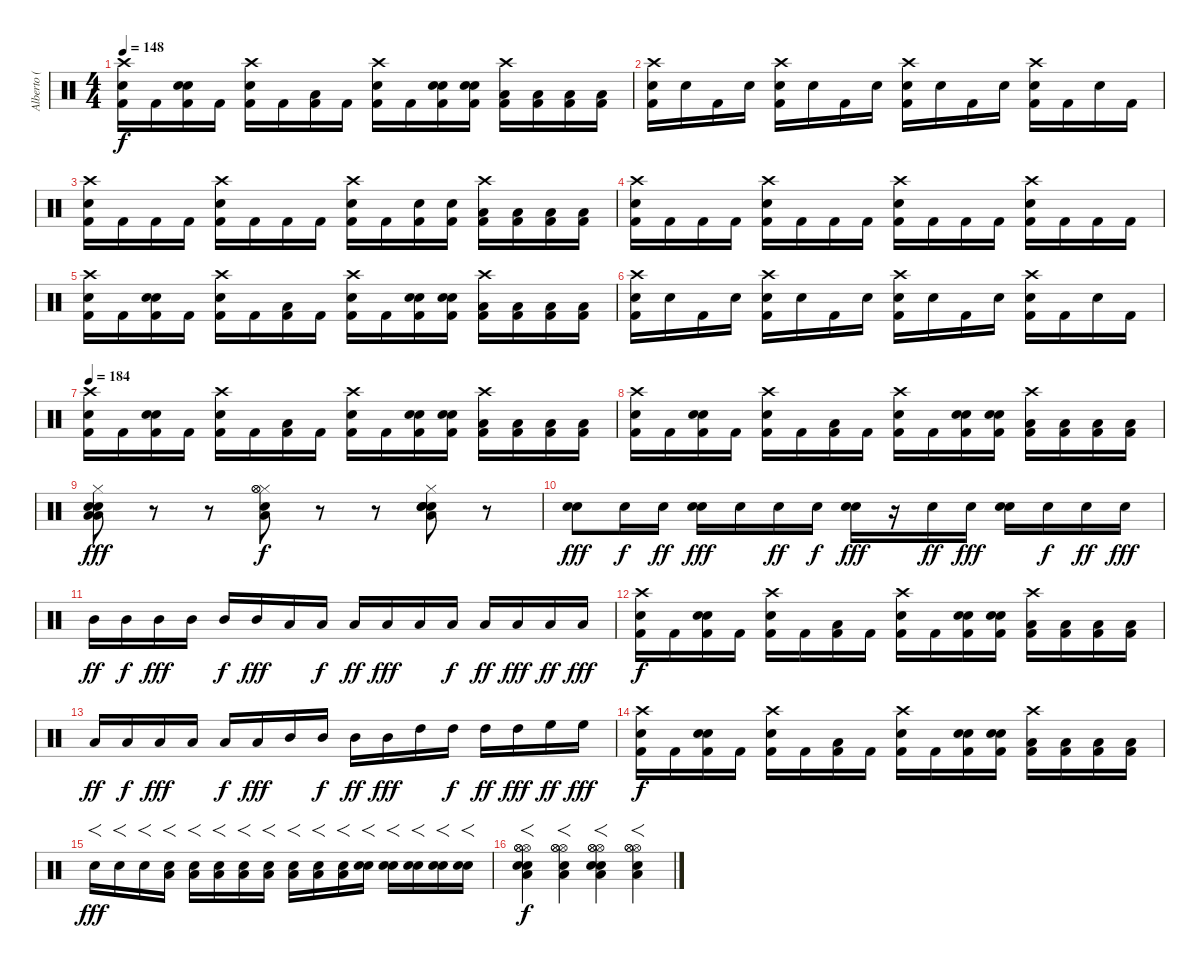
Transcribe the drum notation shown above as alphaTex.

\track ("Alberto ( Tohi )" "Alberto ( ") {instrument percussion}
\staff {score}
\articulation defaults
\ts (4 4)
\tempo 148
\clef neutral
\ks c
("Crash high (hit)" "Electric Snare (hit)" "Kick (hit) 2").16{dy f} "Kick (hit) 2".16 ("Electric Snare (hit)" "Electric Snare (hit)" "Kick (hit) 2").16 "Kick (hit) 2".16 ("Crash high (hit)" "Electric Snare (hit)" "Kick (hit) 2").16 "Kick (hit) 2".16 ("Low Tom (hit)" "Kick (hit) 2").16 "Kick (hit) 2".16 ("Crash high (hit)" "Electric Snare (hit)" "Kick (hit) 2").16 "Kick (hit) 2".16 ("Electric Snare (hit)" "Electric Snare (hit)" "Kick (hit) 2").16 ("Electric Snare (hit)" "Electric Snare (hit)" "Kick (hit) 2").16 ("Crash high (hit)" "Low Tom (hit)" "Kick (hit) 2").16 ("Low Tom (hit)" "Kick (hit) 2").16 ("Low Floor Tom (hit)" "Kick (hit) 2").16 ("Low Floor Tom (hit)" "Kick (hit) 2").16 |
("Crash high (hit)" "Electric Snare (hit)" "Kick (hit) 2").16 "Snare (hit) 2".16 "Kick (hit) 2".16 "Snare (hit) 2".16 ("Crash high (hit)" "Electric Snare (hit)" "Kick (hit) 2").16 "Snare (hit) 2".16 "Kick (hit) 2".16 "Snare (hit) 2".16 ("Crash high (hit)" "Electric Snare (hit)" "Kick (hit) 2").16 "Snare (hit) 2".16 "Kick (hit) 2".16 "Snare (hit) 2".16 ("Crash high (hit)" "Electric Snare (hit)" "Kick (hit) 2").16 "Kick (hit) 2".16 "Snare (hit) 2".16 "Kick (hit) 2".16 |
("Crash high (hit)" "Electric Snare (hit)" "Kick (hit) 2").16 "Kick (hit) 2".16 "Kick (hit) 2".16 "Kick (hit) 2".16 ("Crash high (hit)" "Electric Snare (hit)" "Kick (hit) 2").16 "Kick (hit) 2".16 "Kick (hit) 2".16 "Kick (hit) 2".16 ("Crash high (hit)" "Electric Snare (hit)" "Kick (hit) 2").16 "Kick (hit) 2".16 ("Electric Snare (hit)" "Kick (hit) 2").16 ("Electric Snare (hit)" "Kick (hit) 2").16 ("Crash high (hit)" "Low Tom (hit)" "Kick (hit) 2").16 ("Low Tom (hit)" "Kick (hit) 2").16 ("Low Floor Tom (hit)" "Kick (hit) 2").16 ("Low Floor Tom (hit)" "Kick (hit) 2").16 |
("Crash high (hit)" "Electric Snare (hit)" "Kick (hit) 2").16 "Kick (hit) 2".16 "Kick (hit) 2".16 "Kick (hit) 2".16 ("Crash high (hit)" "Electric Snare (hit)" "Kick (hit) 2").16 "Kick (hit) 2".16 "Kick (hit) 2".16 "Kick (hit) 2".16 ("Crash high (hit)" "Electric Snare (hit)" "Kick (hit) 2").16 "Kick (hit) 2".16 "Kick (hit) 2".16 "Kick (hit) 2".16 ("Crash high (hit)" "Electric Snare (hit)" "Kick (hit) 2").16 "Kick (hit) 2".16 "Kick (hit) 2".16 "Kick (hit) 2".16 |
("Crash high (hit)" "Electric Snare (hit)" "Kick (hit) 2").16 "Kick (hit) 2".16 ("Electric Snare (hit)" "Electric Snare (hit)" "Kick (hit) 2").16 "Kick (hit) 2".16 ("Crash high (hit)" "Electric Snare (hit)" "Kick (hit) 2").16 "Kick (hit) 2".16 ("Low Tom (hit)" "Kick (hit) 2").16 "Kick (hit) 2".16 ("Crash high (hit)" "Electric Snare (hit)" "Kick (hit) 2").16 "Kick (hit) 2".16 ("Electric Snare (hit)" "Electric Snare (hit)" "Kick (hit) 2").16 ("Electric Snare (hit)" "Electric Snare (hit)" "Kick (hit) 2").16 ("Crash high (hit)" "Low Tom (hit)" "Kick (hit) 2").16 ("Low Tom (hit)" "Kick (hit) 2").16 ("Low Floor Tom (hit)" "Kick (hit) 2").16 ("Low Floor Tom (hit)" "Kick (hit) 2").16 |
("Crash high (hit)" "Electric Snare (hit)" "Kick (hit) 2").16 "Snare (hit) 2".16 "Kick (hit) 2".16 "Snare (hit) 2".16 ("Crash high (hit)" "Electric Snare (hit)" "Kick (hit) 2").16 "Snare (hit) 2".16 "Kick (hit) 2".16 "Snare (hit) 2".16 ("Crash high (hit)" "Electric Snare (hit)" "Kick (hit) 2").16 "Snare (hit) 2".16 "Kick (hit) 2".16 "Snare (hit) 2".16 ("Crash high (hit)" "Electric Snare (hit)" "Kick (hit) 2").16 "Kick (hit) 2".16 "Snare (hit) 2".16 "Kick (hit) 2".16 |
\tempo 184
("Crash high (hit)" "Electric Snare (hit)" "Kick (hit) 2").16 "Kick (hit) 2".16 ("Electric Snare (hit)" "Electric Snare (hit)" "Kick (hit) 2").16 "Kick (hit) 2".16 ("Crash high (hit)" "Electric Snare (hit)" "Kick (hit) 2").16 "Kick (hit) 2".16 ("Low Tom (hit)" "Kick (hit) 2").16 "Kick (hit) 2".16 ("Crash high (hit)" "Electric Snare (hit)" "Kick (hit) 2").16 "Kick (hit) 2".16 ("Electric Snare (hit)" "Electric Snare (hit)" "Kick (hit) 2").16 ("Electric Snare (hit)" "Electric Snare (hit)" "Kick (hit) 2").16 ("Crash high (hit)" "Low Tom (hit)" "Kick (hit) 2").16 ("Low Tom (hit)" "Kick (hit) 2").16 ("Low Floor Tom (hit)" "Kick (hit) 2").16 ("Low Floor Tom (hit)" "Kick (hit) 2").16 |
("Crash high (hit)" "Electric Snare (hit)" "Kick (hit) 2").16 "Kick (hit) 2".16 ("Electric Snare (hit)" "Electric Snare (hit)" "Kick (hit) 2").16 "Kick (hit) 2".16 ("Crash high (hit)" "Electric Snare (hit)" "Kick (hit) 2").16 "Kick (hit) 2".16 ("Low Tom (hit)" "Kick (hit) 2").16 "Kick (hit) 2".16 ("Crash high (hit)" "Electric Snare (hit)" "Kick (hit) 2").16 "Kick (hit) 2".16 ("Electric Snare (hit)" "Electric Snare (hit)" "Kick (hit) 2").16 ("Electric Snare (hit)" "Electric Snare (hit)" "Kick (hit) 2").16 ("Crash high (hit)" "Low Tom (hit)" "Kick (hit) 2").16 ("Low Tom (hit)" "Kick (hit) 2").16 ("Low Floor Tom (hit)" "Kick (hit) 2").16 ("Low Floor Tom (hit)" "Kick (hit) 2").16 |
("Hi-Hat (closed)" "Electric Snare (hit)" "Low Tom (hit)" "Electric Snare (hit)" "Low Tom (hit)").8{dy fff} r.8 r.8 ("Hi-Hat (closed)" "Electric Snare (hit)" "Low Tom (hit)" "Hi-Hat (open)" "Hi-Hat (open)").8{dy f} r.8 r.8 ("Hi-Hat (closed)" "Electric Snare (hit)" "Electric Snare (hit)" "Electric Snare (hit)" "Low Tom (hit)").8 r.8 |
("Electric Snare (hit)" "Electric Snare (hit)").8{dy fff} "Electric Snare (hit)".16{dy f} "Electric Snare (hit)".16{dy ff} ("Electric Snare (hit)" "Electric Snare (hit)").16{dy fff} "Electric Snare (hit)".16 "Electric Snare (hit)".16{dy ff} "Electric Snare (hit)".16{dy f} ("Electric Snare (hit)" "Electric Snare (hit)").16{dy fff} r.16 "Electric Snare (hit)".16{dy ff} "Electric Snare (hit)".16{dy fff} ("Electric Snare (hit)" "Electric Snare (hit)").16 "Electric Snare (hit)".16{dy f} "Electric Snare (hit)".16{dy ff} "Electric Snare (hit)".16{dy fff} |
"Mid Tom (hit)".16{dy ff} "Mid Tom (hit)".16{dy f} "Mid Tom (hit)".16{dy fff} "Mid Tom (hit)".16 "Mid Tom (hit)".16{dy f} "Mid Tom (hit)".16{dy fff} "Low Tom (hit)".16 "Low Tom (hit)".16{dy f} "Low Tom (hit)".16{dy ff} "Low Tom (hit)".16{dy fff} "Low Floor Tom (hit)".16 "Low Floor Tom (hit)".16{dy f} "Low Floor Tom (hit)".16{dy ff} "Low Floor Tom (hit)".16{dy fff} "Low Floor Tom (hit)".16{dy ff} "Low Floor Tom (hit)".16{dy fff} |
("Crash high (hit)" "Electric Snare (hit)" "Kick (hit) 2").16{dy f} "Kick (hit) 2".16 ("Electric Snare (hit)" "Electric Snare (hit)" "Kick (hit) 2").16 "Kick (hit) 2".16 ("Crash high (hit)" "Electric Snare (hit)" "Kick (hit) 2").16 "Kick (hit) 2".16 ("Low Tom (hit)" "Kick (hit) 2").16 "Kick (hit) 2".16 ("Crash high (hit)" "Electric Snare (hit)" "Kick (hit) 2").16 "Kick (hit) 2".16 ("Electric Snare (hit)" "Electric Snare (hit)" "Kick (hit) 2").16 ("Electric Snare (hit)" "Electric Snare (hit)" "Kick (hit) 2").16 ("Crash high (hit)" "Low Tom (hit)" "Kick (hit) 2").16 ("Low Tom (hit)" "Kick (hit) 2").16 ("Low Floor Tom (hit)" "Kick (hit) 2").16 ("Low Floor Tom (hit)" "Kick (hit) 2").16 |
"Low Floor Tom (hit)".16{dy ff} "Low Floor Tom (hit)".16{dy f} "Low Floor Tom (hit)".16{dy fff} "Low Floor Tom (hit)".16 "Low Tom (hit)".16{dy f} "Low Tom (hit)".16{dy fff} "Mid Tom (hit)".16 "Mid Tom (hit)".16{dy f} "Mid Tom (hit)".16{dy ff} "Mid Tom (hit)".16{dy fff} "High Tom (hit)".16 "High Tom (hit)".16{dy f} "High Tom (hit)".16{dy ff} "High Tom (hit)".16{dy fff} "High Floor Tom (hit)".16{dy ff} "High Floor Tom (hit)".16{dy fff} |
("Crash high (hit)" "Electric Snare (hit)" "Kick (hit) 2").16{dy f} "Kick (hit) 2".16 ("Electric Snare (hit)" "Electric Snare (hit)" "Kick (hit) 2").16 "Kick (hit) 2".16 ("Crash high (hit)" "Electric Snare (hit)" "Kick (hit) 2").16 "Kick (hit) 2".16 ("Low Tom (hit)" "Kick (hit) 2").16 "Kick (hit) 2".16 ("Crash high (hit)" "Electric Snare (hit)" "Kick (hit) 2").16 "Kick (hit) 2".16 ("Electric Snare (hit)" "Electric Snare (hit)" "Kick (hit) 2").16 ("Electric Snare (hit)" "Electric Snare (hit)" "Kick (hit) 2").16 ("Crash high (hit)" "Low Tom (hit)" "Kick (hit) 2").16 ("Low Tom (hit)" "Kick (hit) 2").16 ("Low Floor Tom (hit)" "Kick (hit) 2").16 ("Low Floor Tom (hit)" "Kick (hit) 2").16 |
"Electric Snare (hit)".16{f dy fff} "Electric Snare (hit)".16{f} "Electric Snare (hit)".16{f} ("Electric Snare (hit)" "Low Tom (hit)").16{f} ("Electric Snare (hit)" "Low Tom (hit)").16{f} ("Electric Snare (hit)" "Low Tom (hit)").16{f} ("Electric Snare (hit)" "Low Floor Tom (hit)").16{f} ("Electric Snare (hit)" "Low Floor Tom (hit)").16{f} ("Electric Snare (hit)" "Low Floor Tom (hit)").16{f} ("Electric Snare (hit)" "Low Floor Tom (hit)").16{f} ("Electric Snare (hit)" "Low Floor Tom (hit)").16{f} ("Electric Snare (hit)" "Snare (hit) 2").16{f} ("Electric Snare (hit)" "Snare (hit) 2").16{f} ("Electric Snare (hit)" "Snare (hit) 2").16{f} ("Electric Snare (hit)" "Snare (hit) 2").16{f} ("Electric Snare (hit)" "Snare (hit) 2").16{f} |
("Electric Snare (hit)" "Hi-Hat (open)" "Hi-Hat (open)" "Hi-Hat (open)" "Low Tom (hit)" "Snare (hit) 2").4{f dy f} ("Electric Snare (hit)" "Hi-Hat (open)" "Hi-Hat (open)" "Hi-Hat (open)" "Low Tom (hit)").4{f} ("Electric Snare (hit)" "Hi-Hat (open)" "Hi-Hat (open)" "Hi-Hat (open)" "Low Tom (hit)" "Snare (hit) 2").4{f} ("Electric Snare (hit)" "Hi-Hat (open)" "Hi-Hat (open)" "Hi-Hat (open)" "Low Tom (hit)").4{f}
